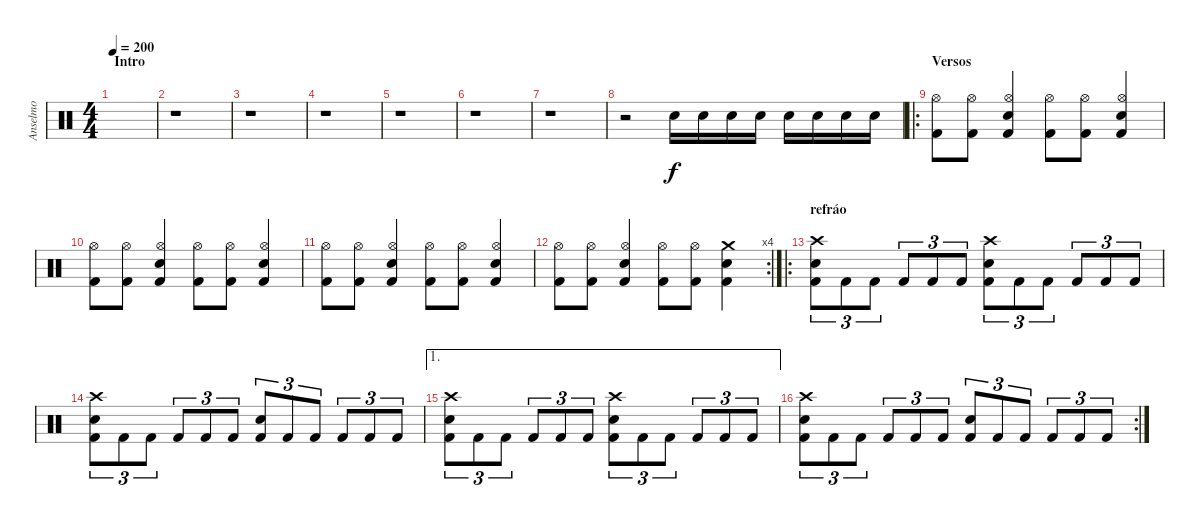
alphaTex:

\track ("Anselmo" "Anselmo") {instrument percussion}
\staff {score}
\articulation defaults
\ts (4 4)
\section ("" "Intro")
\tempo 200
\clef neutral
\ks c
|
r.1 |
r.1 |
r.1 |
r.1 |
r.1 |
r.1 |
r.2 "Electric Snare (hit)".16 "Electric Snare (hit)".16 "Electric Snare (hit)".16 "Electric Snare (hit)".16 "Electric Snare (hit)".16 "Electric Snare (hit)".16 "Electric Snare (hit)".16 "Electric Snare (hit)".16 |
\ro
\section ("" "Versos")
("Hi-Hat (open)" "Kick (hit) 2").8 ("Hi-Hat (open)" "Kick (hit) 2").8 ("Hi-Hat (open)" "Kick (hit) 2" "Electric Snare (hit)").4 ("Hi-Hat (open)" "Kick (hit) 2").8 ("Hi-Hat (open)" "Kick (hit) 2").8 ("Hi-Hat (open)" "Kick (hit) 2" "Electric Snare (hit)").4 |
("Hi-Hat (open)" "Kick (hit) 2").8 ("Hi-Hat (open)" "Kick (hit) 2").8 ("Hi-Hat (open)" "Kick (hit) 2" "Electric Snare (hit)").4 ("Hi-Hat (open)" "Kick (hit) 2").8 ("Hi-Hat (open)" "Kick (hit) 2").8 ("Hi-Hat (open)" "Kick (hit) 2" "Electric Snare (hit)").4 |
("Hi-Hat (open)" "Kick (hit) 2").8 ("Hi-Hat (open)" "Kick (hit) 2").8 ("Hi-Hat (open)" "Kick (hit) 2" "Electric Snare (hit)").4 ("Hi-Hat (open)" "Kick (hit) 2").8 ("Hi-Hat (open)" "Kick (hit) 2").8 ("Hi-Hat (open)" "Kick (hit) 2" "Electric Snare (hit)").4 |
\rc 4
("Hi-Hat (open)" "Kick (hit) 2").8 ("Hi-Hat (open)" "Kick (hit) 2").8 ("Hi-Hat (open)" "Kick (hit) 2" "Electric Snare (hit)").4 ("Hi-Hat (open)" "Kick (hit) 2").8 ("Hi-Hat (open)" "Kick (hit) 2").8 ("Crash medium (hit)" "Kick (hit) 2" "Electric Snare (hit)").4 |
\ro
\section ("" "refráo")
("Crash high (hit)" "Electric Snare (hit)" "Kick (hit) 2").8{tu (3 2)} "Kick (hit) 2".8{tu (3 2)} "Kick (hit) 2".8{tu (3 2)} "Kick (hit) 2".8{tu (3 2)} "Kick (hit) 2".8{tu (3 2)} "Kick (hit) 2".8{tu (3 2)} ("Crash high (hit)" "Electric Snare (hit)" "Kick (hit) 2").8{tu (3 2)} "Kick (hit) 2".8{tu (3 2)} "Kick (hit) 2".8{tu (3 2)} "Kick (hit) 2".8{tu (3 2)} "Kick (hit) 2".8{tu (3 2)} "Kick (hit) 2".8{tu (3 2)} |
("Crash high (hit)" "Electric Snare (hit)" "Kick (hit) 2").8{tu (3 2)} "Kick (hit) 2".8{tu (3 2)} "Kick (hit) 2".8{tu (3 2)} "Kick (hit) 2".8{tu (3 2)} "Kick (hit) 2".8{tu (3 2)} "Kick (hit) 2".8{tu (3 2)} ("Electric Snare (hit)" "Kick (hit) 2").8{tu (3 2)} "Kick (hit) 2".8{tu (3 2)} "Kick (hit) 2".8{tu (3 2)} "Kick (hit) 2".8{tu (3 2)} "Kick (hit) 2".8{tu (3 2)} "Kick (hit) 2".8{tu (3 2)} |
\ae 1
("Crash high (hit)" "Electric Snare (hit)" "Kick (hit) 2").8{tu (3 2)} "Kick (hit) 2".8{tu (3 2)} "Kick (hit) 2".8{tu (3 2)} "Kick (hit) 2".8{tu (3 2)} "Kick (hit) 2".8{tu (3 2)} "Kick (hit) 2".8{tu (3 2)} ("Crash high (hit)" "Electric Snare (hit)" "Kick (hit) 2").8{tu (3 2)} "Kick (hit) 2".8{tu (3 2)} "Kick (hit) 2".8{tu (3 2)} "Kick (hit) 2".8{tu (3 2)} "Kick (hit) 2".8{tu (3 2)} "Kick (hit) 2".8{tu (3 2)} |
\rc 2
("Crash high (hit)" "Electric Snare (hit)" "Kick (hit) 2").8{tu (3 2)} "Kick (hit) 2".8{tu (3 2)} "Kick (hit) 2".8{tu (3 2)} "Kick (hit) 2".8{tu (3 2)} "Kick (hit) 2".8{tu (3 2)} "Kick (hit) 2".8{tu (3 2)} ("Electric Snare (hit)" "Kick (hit) 2").8{tu (3 2)} "Kick (hit) 2".8{tu (3 2)} "Kick (hit) 2".8{tu (3 2)} "Kick (hit) 2".8{tu (3 2)} "Kick (hit) 2".8{tu (3 2)} "Kick (hit) 2".8{tu (3 2)}
